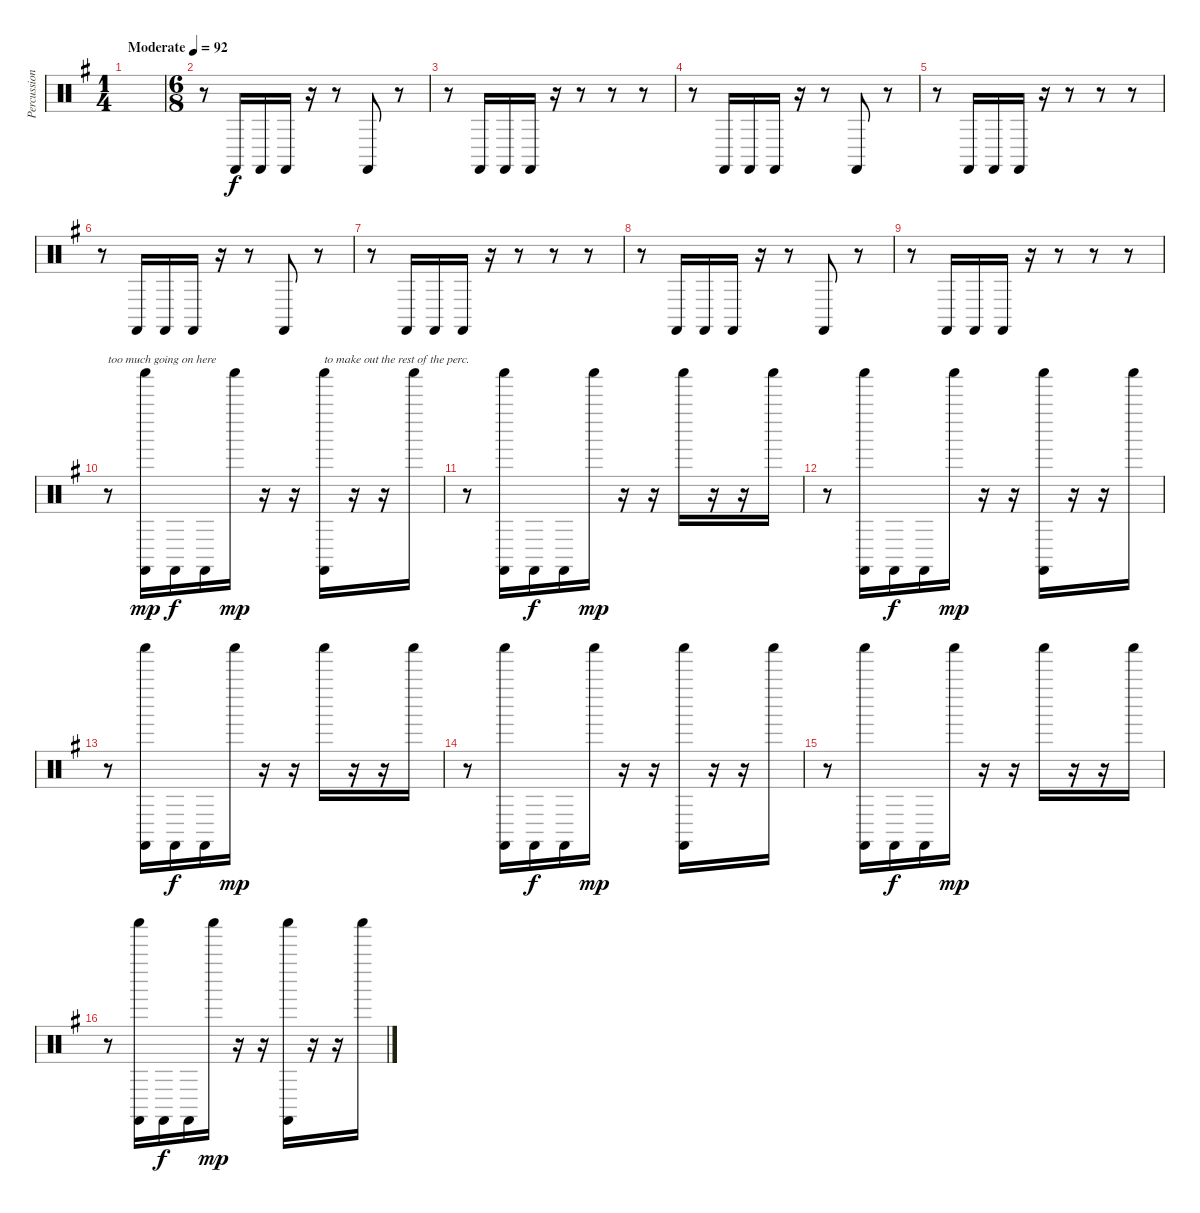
\track ("Percussion" "Percussion") {instrument percussion}
\staff {score}
\articulation defaults
\ts (1 4)
\tempo (92 "Moderate")
\clef neutral
\ks g
|
\ts (6 8)
r.8 "Castanets (hit)".16 "Castanets (hit)".16 "Castanets (hit)".16 r.16 r.8 "Castanets (hit)".8 r.8 |
r.8 "Castanets (hit)".16 "Castanets (hit)".16 "Castanets (hit)".16 r.16 r.8 r.8 r.8 |
r.8 "Castanets (hit)".16 "Castanets (hit)".16 "Castanets (hit)".16 r.16 r.8 "Castanets (hit)".8 r.8 |
r.8 "Castanets (hit)".16 "Castanets (hit)".16 "Castanets (hit)".16 r.16 r.8 r.8 r.8 |
r.8 "Castanets (hit)".16 "Castanets (hit)".16 "Castanets (hit)".16 r.16 r.8 "Castanets (hit)".8 r.8 |
r.8 "Castanets (hit)".16 "Castanets (hit)".16 "Castanets (hit)".16 r.16 r.8 r.8 r.8 |
r.8 "Castanets (hit)".16 "Castanets (hit)".16 "Castanets (hit)".16 r.16 r.8 "Castanets (hit)".8 r.8 |
r.8 "Castanets (hit)".16 "Castanets (hit)".16 "Castanets (hit)".16 r.16 r.8 r.8 r.8 |
r.8{txt "too much going on here"} ("Shaker (hit)" "Castanets (hit)").16{dy mp} "Castanets (hit)".16{dy f} "Castanets (hit)".16 "Shaker (hit)".16{dy mp} r.16 r.16 ("Shaker (hit)" "Castanets (hit)").16{txt "to make out the rest of the perc."} r.16 r.16 "Shaker (hit)".16 |
r.8 ("Shaker (hit)" "Castanets (hit)").16 "Castanets (hit)".16{dy f} "Castanets (hit)".16 "Shaker (hit)".16{dy mp} r.16 r.16 "Shaker (hit)".16 r.16 r.16 "Shaker (hit)".16 |
r.8 ("Shaker (hit)" "Castanets (hit)").16 "Castanets (hit)".16{dy f} "Castanets (hit)".16 "Shaker (hit)".16{dy mp} r.16 r.16 ("Shaker (hit)" "Castanets (hit)").16 r.16 r.16 "Shaker (hit)".16 |
r.8 ("Shaker (hit)" "Castanets (hit)").16 "Castanets (hit)".16{dy f} "Castanets (hit)".16 "Shaker (hit)".16{dy mp} r.16 r.16 "Shaker (hit)".16 r.16 r.16 "Shaker (hit)".16 |
r.8 ("Shaker (hit)" "Castanets (hit)").16 "Castanets (hit)".16{dy f} "Castanets (hit)".16 "Shaker (hit)".16{dy mp} r.16 r.16 ("Shaker (hit)" "Castanets (hit)").16 r.16 r.16 "Shaker (hit)".16 |
r.8 ("Shaker (hit)" "Castanets (hit)").16 "Castanets (hit)".16{dy f} "Castanets (hit)".16 "Shaker (hit)".16{dy mp} r.16 r.16 "Shaker (hit)".16 r.16 r.16 "Shaker (hit)".16 |
r.8 ("Shaker (hit)" "Castanets (hit)").16 "Castanets (hit)".16{dy f} "Castanets (hit)".16 "Shaker (hit)".16{dy mp} r.16 r.16 ("Shaker (hit)" "Castanets (hit)").16 r.16 r.16 "Shaker (hit)".16
